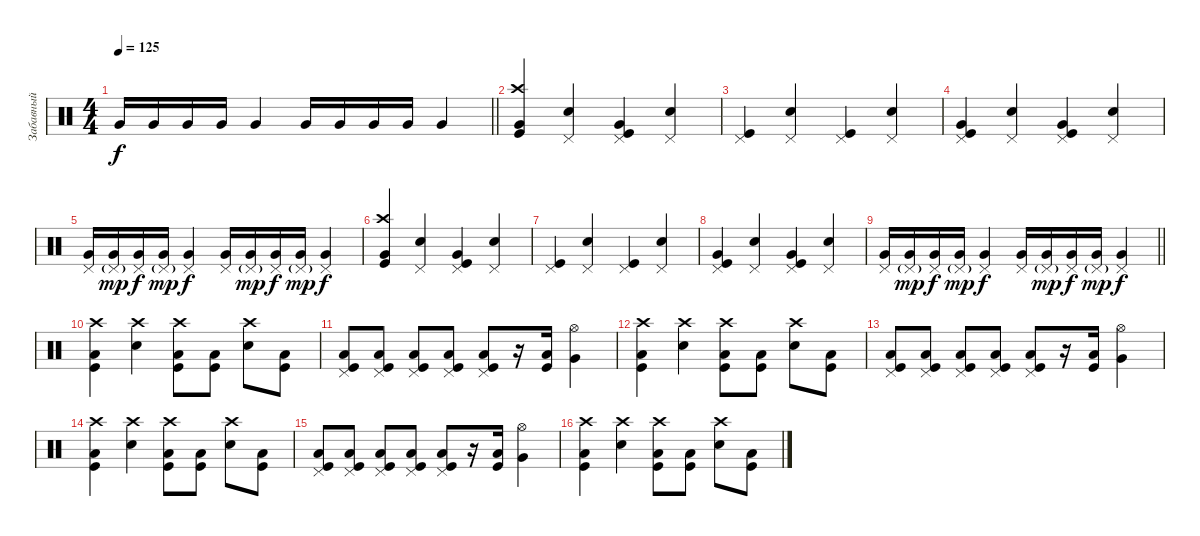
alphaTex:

\track ("Забавный" "Забавный") {instrument percussion}
\staff {score}
\articulation defaults
\ts (4 4)
\tempo 125
\clef neutral
\barLineRight lightlight
\ks c "Very Low Tom (hit)".16{dy f} "Very Low Tom (hit)".16 "Very Low Tom (hit)".16 "Very Low Tom (hit)".16 "Very Low Tom (hit)".4 "Very Low Tom (hit)".16 "Very Low Tom (hit)".16 "Very Low Tom (hit)".16 "Very Low Tom (hit)".16 "Very Low Tom (hit)".4
|
("Crash high (hit)" "Very Low Tom (hit)" "Kick (hit)").4 ("Pedal Hi-Hat (hit)" "Snare (hit) 2").4 ("Pedal Hi-Hat (hit)" "Very Low Tom (hit)" "Kick (hit)").4 ("Pedal Hi-Hat (hit)" "Snare (hit) 2").4 |
("Pedal Hi-Hat (hit)" "Kick (hit)").4 ("Pedal Hi-Hat (hit)" "Snare (hit) 2").4 ("Pedal Hi-Hat (hit)" "Kick (hit)").4 ("Pedal Hi-Hat (hit)" "Snare (hit) 2").4 |
("Pedal Hi-Hat (hit)" "Very Low Tom (hit)" "Kick (hit)").4 ("Pedal Hi-Hat (hit)" "Snare (hit) 2").4 ("Pedal Hi-Hat (hit)" "Very Low Tom (hit)" "Kick (hit)").4 ("Pedal Hi-Hat (hit)" "Snare (hit) 2").4 |
("Pedal Hi-Hat (hit)" "Very Low Tom (hit)").16 ("Pedal Hi-Hat (hit)"{g} "Very Low Tom (hit)").16{dy mp} ("Pedal Hi-Hat (hit)" "Very Low Tom (hit)").16{dy f} ("Pedal Hi-Hat (hit)"{g} "Very Low Tom (hit)").16{dy mp} ("Pedal Hi-Hat (hit)" "Very Low Tom (hit)").4{dy f} ("Pedal Hi-Hat (hit)" "Very Low Tom (hit)").16 ("Pedal Hi-Hat (hit)"{g} "Very Low Tom (hit)").16{dy mp} ("Pedal Hi-Hat (hit)" "Very Low Tom (hit)").16{dy f} ("Pedal Hi-Hat (hit)"{g} "Very Low Tom (hit)").16{dy mp} ("Pedal Hi-Hat (hit)" "Very Low Tom (hit)").4{dy f} |
("Crash high (hit)" "Very Low Tom (hit)" "Kick (hit)").4 ("Pedal Hi-Hat (hit)" "Snare (hit) 2").4 ("Pedal Hi-Hat (hit)" "Very Low Tom (hit)" "Kick (hit)").4 ("Pedal Hi-Hat (hit)" "Snare (hit) 2").4 |
("Pedal Hi-Hat (hit)" "Kick (hit)").4 ("Pedal Hi-Hat (hit)" "Snare (hit) 2").4 ("Pedal Hi-Hat (hit)" "Kick (hit)").4 ("Pedal Hi-Hat (hit)" "Snare (hit) 2").4 |
("Pedal Hi-Hat (hit)" "Very Low Tom (hit)" "Kick (hit)").4 ("Pedal Hi-Hat (hit)" "Snare (hit) 2").4 ("Pedal Hi-Hat (hit)" "Very Low Tom (hit)" "Kick (hit)").4 ("Pedal Hi-Hat (hit)" "Snare (hit) 2").4 |
\barLineRight lightlight
("Pedal Hi-Hat (hit)" "Very Low Tom (hit)").16 ("Pedal Hi-Hat (hit)"{g} "Very Low Tom (hit)").16{dy mp} ("Pedal Hi-Hat (hit)" "Very Low Tom (hit)").16{dy f} ("Pedal Hi-Hat (hit)"{g} "Very Low Tom (hit)").16{dy mp} ("Pedal Hi-Hat (hit)" "Very Low Tom (hit)").4{dy f} ("Pedal Hi-Hat (hit)" "Very Low Tom (hit)").16 ("Pedal Hi-Hat (hit)"{g} "Very Low Tom (hit)").16{dy mp} ("Pedal Hi-Hat (hit)" "Very Low Tom (hit)").16{dy f} ("Pedal Hi-Hat (hit)"{g} "Very Low Tom (hit)").16{dy mp} ("Pedal Hi-Hat (hit)" "Very Low Tom (hit)").4{dy f} |
("Crash high (hit)" "Low Tom (hit)" "Kick (hit)").4 ("Crash high (hit)" "Electric Snare (hit)").4 ("Crash high (hit)" "Low Tom (hit)" "Kick (hit)").8 ("Low Tom (hit)" "Kick (hit)").8 ("Crash high (hit)" "Electric Snare (hit)").8 ("Low Tom (hit)" "Kick (hit)").8 |
("Pedal Hi-Hat (hit)" "Low Tom (hit)" "Kick (hit)").8 ("Pedal Hi-Hat (hit)" "Low Tom (hit)" "Kick (hit)").8 ("Pedal Hi-Hat (hit)" "Low Tom (hit)" "Kick (hit)").8 ("Pedal Hi-Hat (hit)" "Low Tom (hit)" "Kick (hit)").8 ("Pedal Hi-Hat (hit)" "Low Tom (hit)" "Kick (hit)").8 r.16 ("Low Tom (hit)" "Kick (hit)").16 ("Hi-Hat (open)" "Very Low Tom (hit)").4 |
("Crash high (hit)" "Low Tom (hit)" "Kick (hit)").4 ("Crash high (hit)" "Electric Snare (hit)").4 ("Crash high (hit)" "Low Tom (hit)" "Kick (hit)").8 ("Low Tom (hit)" "Kick (hit)").8 ("Crash high (hit)" "Electric Snare (hit)").8 ("Low Tom (hit)" "Kick (hit)").8 |
("Pedal Hi-Hat (hit)" "Low Tom (hit)" "Kick (hit)").8 ("Pedal Hi-Hat (hit)" "Low Tom (hit)" "Kick (hit)").8 ("Pedal Hi-Hat (hit)" "Low Tom (hit)" "Kick (hit)").8 ("Pedal Hi-Hat (hit)" "Low Tom (hit)" "Kick (hit)").8 ("Pedal Hi-Hat (hit)" "Low Tom (hit)" "Kick (hit)").8 r.16 ("Low Tom (hit)" "Kick (hit)").16 ("Hi-Hat (open)" "Very Low Tom (hit)").4 |
("Crash high (hit)" "Low Tom (hit)" "Kick (hit)").4 ("Crash high (hit)" "Electric Snare (hit)").4 ("Crash high (hit)" "Low Tom (hit)" "Kick (hit)").8 ("Low Tom (hit)" "Kick (hit)").8 ("Crash high (hit)" "Electric Snare (hit)").8 ("Low Tom (hit)" "Kick (hit)").8 |
("Pedal Hi-Hat (hit)" "Low Tom (hit)" "Kick (hit)").8 ("Pedal Hi-Hat (hit)" "Low Tom (hit)" "Kick (hit)").8 ("Pedal Hi-Hat (hit)" "Low Tom (hit)" "Kick (hit)").8 ("Pedal Hi-Hat (hit)" "Low Tom (hit)" "Kick (hit)").8 ("Pedal Hi-Hat (hit)" "Low Tom (hit)" "Kick (hit)").8 r.16 ("Low Tom (hit)" "Kick (hit)").16 ("Hi-Hat (open)" "Very Low Tom (hit)").4 |
("Crash high (hit)" "Low Tom (hit)" "Kick (hit)").4 ("Crash high (hit)" "Electric Snare (hit)").4 ("Crash high (hit)" "Low Tom (hit)" "Kick (hit)").8 ("Low Tom (hit)" "Kick (hit)").8 ("Crash high (hit)" "Electric Snare (hit)").8 ("Low Tom (hit)" "Kick (hit)").8
